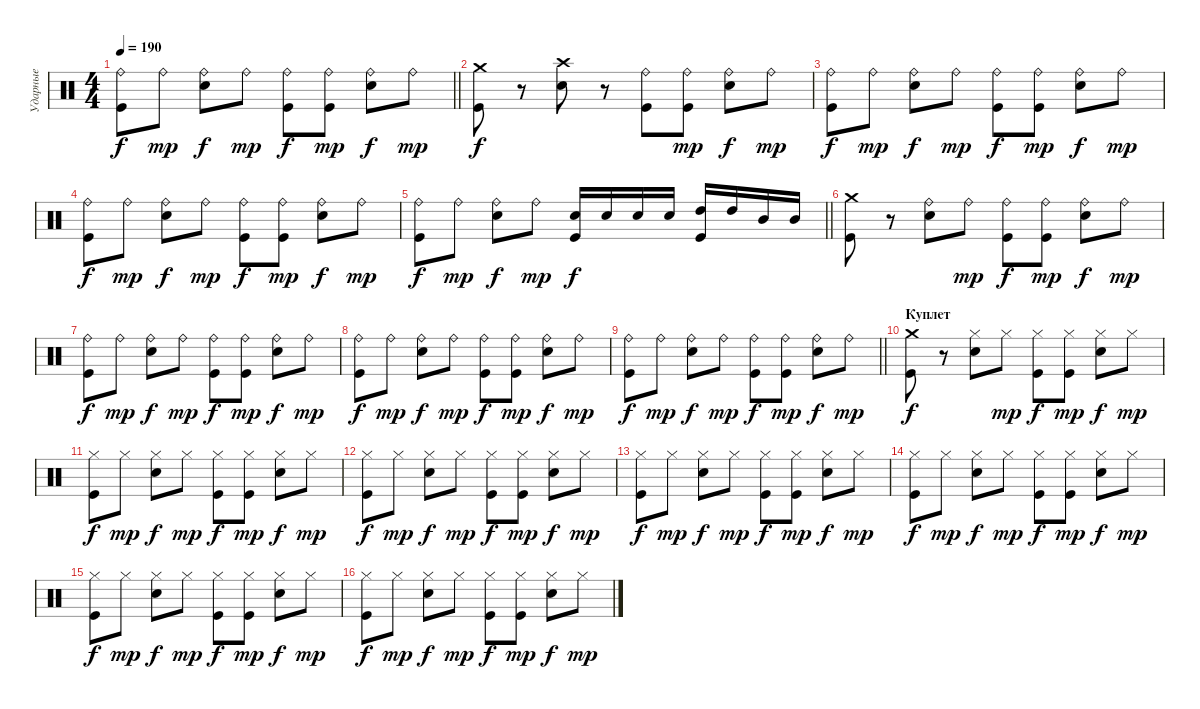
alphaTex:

\track ("Ударные" "Ударные") {instrument percussion}
\staff {score}
\articulation defaults
\ts (4 4)
\tempo 190
\clef neutral
\barLineRight lightlight
\ks c
("Ride (bell)" "Kick (hit)").8{dy f} "Ride (bell)".8{dy mp} ("Ride (bell)" "Electric Snare (hit)").8{dy f} "Ride (bell)".8{dy mp} ("Ride (bell)" "Kick (hit)").8{dy f} ("Ride (bell)" "Kick (hit)").8{dy mp} ("Ride (bell)" "Electric Snare (hit)").8{dy f} "Ride (bell)".8{dy mp} |
("Crash medium (hit)" "Kick (hit)").8{dy f} r.8 ("Crash high (hit)" "Electric Snare (hit)").8 r.8 ("Ride (bell)" "Kick (hit)").8 ("Ride (bell)" "Kick (hit)").8{dy mp} ("Ride (bell)" "Electric Snare (hit)").8{dy f} "Ride (bell)".8{dy mp} |
("Ride (bell)" "Kick (hit)").8{dy f} "Ride (bell)".8{dy mp} ("Ride (bell)" "Electric Snare (hit)").8{dy f} "Ride (bell)".8{dy mp} ("Ride (bell)" "Kick (hit)").8{dy f} ("Ride (bell)" "Kick (hit)").8{dy mp} ("Ride (bell)" "Electric Snare (hit)").8{dy f} "Ride (bell)".8{dy mp} |
("Ride (bell)" "Kick (hit)").8{dy f} "Ride (bell)".8{dy mp} ("Ride (bell)" "Electric Snare (hit)").8{dy f} "Ride (bell)".8{dy mp} ("Ride (bell)" "Kick (hit)").8{dy f} ("Ride (bell)" "Kick (hit)").8{dy mp} ("Ride (bell)" "Electric Snare (hit)").8{dy f} "Ride (bell)".8{dy mp} |
\barLineRight lightlight
("Ride (bell)" "Kick (hit)").8{dy f} "Ride (bell)".8{dy mp} ("Ride (bell)" "Electric Snare (hit)").8{dy f} "Ride (bell)".8{dy mp} ("Electric Snare (hit)" "Kick (hit)").16{dy f} "Electric Snare (hit)".16 "Electric Snare (hit)".16 "Electric Snare (hit)".16 ("High Tom (hit)" "Kick (hit)").16 "High Tom (hit)".16 "Mid Tom (hit)".16 "Mid Tom (hit)".16 |
\section ("" " ")
("Crash medium (hit)" "Kick (hit)").8 r.8 ("Ride (bell)" "Electric Snare (hit)").8 "Ride (bell)".8{dy mp} ("Ride (bell)" "Kick (hit)").8{dy f} ("Ride (bell)" "Kick (hit)").8{dy mp} ("Ride (bell)" "Electric Snare (hit)").8{dy f} "Ride (bell)".8{dy mp} |
("Ride (bell)" "Kick (hit)").8{dy f} "Ride (bell)".8{dy mp} ("Ride (bell)" "Electric Snare (hit)").8{dy f} "Ride (bell)".8{dy mp} ("Ride (bell)" "Kick (hit)").8{dy f} ("Ride (bell)" "Kick (hit)").8{dy mp} ("Ride (bell)" "Electric Snare (hit)").8{dy f} "Ride (bell)".8{dy mp} |
("Ride (bell)" "Kick (hit)").8{dy f} "Ride (bell)".8{dy mp} ("Ride (bell)" "Electric Snare (hit)").8{dy f} "Ride (bell)".8{dy mp} ("Ride (bell)" "Kick (hit)").8{dy f} ("Ride (bell)" "Kick (hit)").8{dy mp} ("Ride (bell)" "Electric Snare (hit)").8{dy f} "Ride (bell)".8{dy mp} |
\barLineRight lightlight
("Ride (bell)" "Kick (hit)").8{dy f} "Ride (bell)".8{dy mp} ("Ride (bell)" "Electric Snare (hit)").8{dy f} "Ride (bell)".8{dy mp} ("Ride (bell)" "Kick (hit)").8{dy f} ("Ride (bell)" "Kick (hit)").8{dy mp} ("Ride (bell)" "Electric Snare (hit)").8{dy f} "Ride (bell)".8{dy mp} |
\section ("" "Куплет")
("Crash medium (hit)" "Kick (hit)").8{dy f} r.8 ("Hi-Hat (closed)" "Electric Snare (hit)").8 "Hi-Hat (closed)".8{dy mp} ("Hi-Hat (closed)" "Kick (hit)").8{dy f} ("Hi-Hat (closed)" "Kick (hit)").8{dy mp} ("Hi-Hat (closed)" "Electric Snare (hit)").8{dy f} "Hi-Hat (closed)".8{dy mp} |
("Hi-Hat (closed)" "Kick (hit)").8{dy f} "Hi-Hat (closed)".8{dy mp} ("Hi-Hat (closed)" "Electric Snare (hit)").8{dy f} "Hi-Hat (closed)".8{dy mp} ("Hi-Hat (closed)" "Kick (hit)").8{dy f} ("Hi-Hat (closed)" "Kick (hit)").8{dy mp} ("Hi-Hat (closed)" "Electric Snare (hit)").8{dy f} "Hi-Hat (closed)".8{dy mp} |
("Hi-Hat (closed)" "Kick (hit)").8{dy f} "Hi-Hat (closed)".8{dy mp} ("Hi-Hat (closed)" "Electric Snare (hit)").8{dy f} "Hi-Hat (closed)".8{dy mp} ("Hi-Hat (closed)" "Kick (hit)").8{dy f} ("Hi-Hat (closed)" "Kick (hit)").8{dy mp} ("Hi-Hat (closed)" "Electric Snare (hit)").8{dy f} "Hi-Hat (closed)".8{dy mp} |
("Hi-Hat (closed)" "Kick (hit)").8{dy f} "Hi-Hat (closed)".8{dy mp} ("Hi-Hat (closed)" "Electric Snare (hit)").8{dy f} "Hi-Hat (closed)".8{dy mp} ("Hi-Hat (closed)" "Kick (hit)").8{dy f} ("Hi-Hat (closed)" "Kick (hit)").8{dy mp} ("Hi-Hat (closed)" "Electric Snare (hit)").8{dy f} "Hi-Hat (closed)".8{dy mp} |
("Hi-Hat (closed)" "Kick (hit)").8{dy f} "Hi-Hat (closed)".8{dy mp} ("Hi-Hat (closed)" "Electric Snare (hit)").8{dy f} "Hi-Hat (closed)".8{dy mp} ("Hi-Hat (closed)" "Kick (hit)").8{dy f} ("Hi-Hat (closed)" "Kick (hit)").8{dy mp} ("Hi-Hat (closed)" "Electric Snare (hit)").8{dy f} "Hi-Hat (closed)".8{dy mp} |
("Hi-Hat (closed)" "Kick (hit)").8{dy f} "Hi-Hat (closed)".8{dy mp} ("Hi-Hat (closed)" "Electric Snare (hit)").8{dy f} "Hi-Hat (closed)".8{dy mp} ("Hi-Hat (closed)" "Kick (hit)").8{dy f} ("Hi-Hat (closed)" "Kick (hit)").8{dy mp} ("Hi-Hat (closed)" "Electric Snare (hit)").8{dy f} "Hi-Hat (closed)".8{dy mp} |
("Hi-Hat (closed)" "Kick (hit)").8{dy f} "Hi-Hat (closed)".8{dy mp} ("Hi-Hat (closed)" "Electric Snare (hit)").8{dy f} "Hi-Hat (closed)".8{dy mp} ("Hi-Hat (closed)" "Kick (hit)").8{dy f} ("Hi-Hat (closed)" "Kick (hit)").8{dy mp} ("Hi-Hat (closed)" "Electric Snare (hit)").8{dy f} "Hi-Hat (closed)".8{dy mp}
